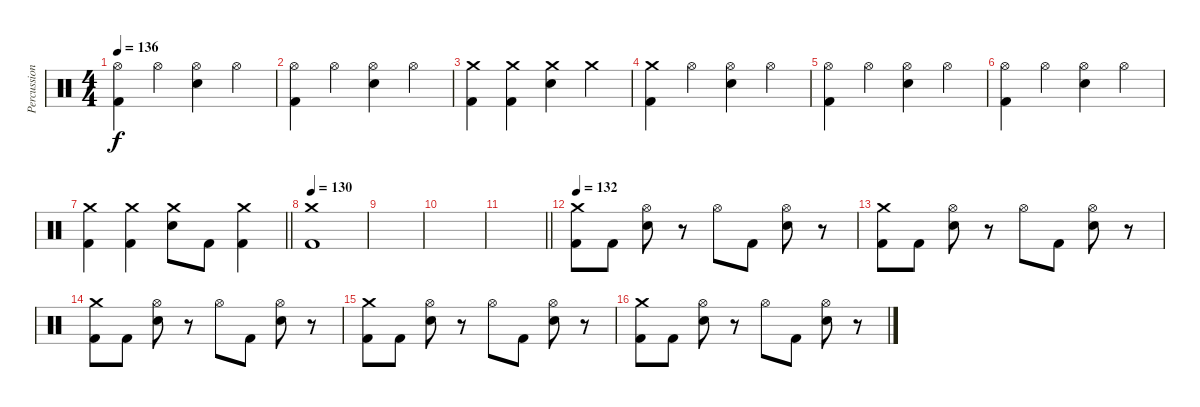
\track ("Percussion" "Percussion") {instrument percussion}
\staff {score}
\articulation defaults
\ts (4 4)
\tempo 136
\clef neutral
\ks c
("Hi-Hat (open)" "Kick (hit) 2").4{dy f} "Hi-Hat (open)".4 ("Hi-Hat (open)" "Electric Snare (hit)").4 "Hi-Hat (open)".4 |
("Hi-Hat (open)" "Kick (hit) 2").4 "Hi-Hat (open)".4 ("Hi-Hat (open)" "Electric Snare (hit)").4 "Hi-Hat (open)".4 |
("Crash medium (hit)" "Kick (hit) 2").4 ("Crash medium (hit)" "Kick (hit) 2").4 ("Crash medium (hit)" "Electric Snare (hit)").4 "Crash medium (hit)".4 |
("Crash medium (hit)" "Kick (hit) 2").4 "Hi-Hat (open)".4 ("Hi-Hat (open)" "Electric Snare (hit)").4 "Hi-Hat (open)".4 |
("Hi-Hat (open)" "Kick (hit) 2").4 "Hi-Hat (open)".4 ("Hi-Hat (open)" "Electric Snare (hit)").4 "Hi-Hat (open)".4 |
("Hi-Hat (open)" "Kick (hit) 2").4 "Hi-Hat (open)".4 ("Hi-Hat (open)" "Electric Snare (hit)").4 "Hi-Hat (open)".4 |
\barLineRight lightlight
("Crash medium (hit)" "Kick (hit) 2").4 ("Crash medium (hit)" "Kick (hit) 2").4 ("Crash medium (hit)" "Electric Snare (hit)").8 "Kick (hit) 2".8 ("Crash medium (hit)" "Kick (hit) 2").4 |
\section ("" "")
\tempo 130
("Crash medium (hit)" "Kick (hit) 2").1 |
|
|
\barLineRight lightlight
|
\section ("" "")
\tempo 132
("Crash medium (hit)" "Kick (hit) 2").8 "Kick (hit) 2".8 ("Hi-Hat (open)" "Electric Snare (hit)").8 r.8 "Hi-Hat (open)".8 "Kick (hit) 2".8 ("Hi-Hat (open)" "Electric Snare (hit)").8 r.8 |
("Crash medium (hit)" "Kick (hit) 2").8 "Kick (hit) 2".8 ("Hi-Hat (open)" "Electric Snare (hit)").8 r.8 "Hi-Hat (open)".8 "Kick (hit) 2".8 ("Hi-Hat (open)" "Electric Snare (hit)").8 r.8 |
("Crash medium (hit)" "Kick (hit) 2").8 "Kick (hit) 2".8 ("Hi-Hat (open)" "Electric Snare (hit)").8 r.8 "Hi-Hat (open)".8 "Kick (hit) 2".8 ("Hi-Hat (open)" "Electric Snare (hit)").8 r.8 |
("Crash medium (hit)" "Kick (hit) 2").8 "Kick (hit) 2".8 ("Hi-Hat (open)" "Electric Snare (hit)").8 r.8 "Hi-Hat (open)".8 "Kick (hit) 2".8 ("Hi-Hat (open)" "Electric Snare (hit)").8 r.8 |
("Crash medium (hit)" "Kick (hit) 2").8 "Kick (hit) 2".8 ("Hi-Hat (open)" "Electric Snare (hit)").8 r.8 "Hi-Hat (open)".8 "Kick (hit) 2".8 ("Hi-Hat (open)" "Electric Snare (hit)").8 r.8
